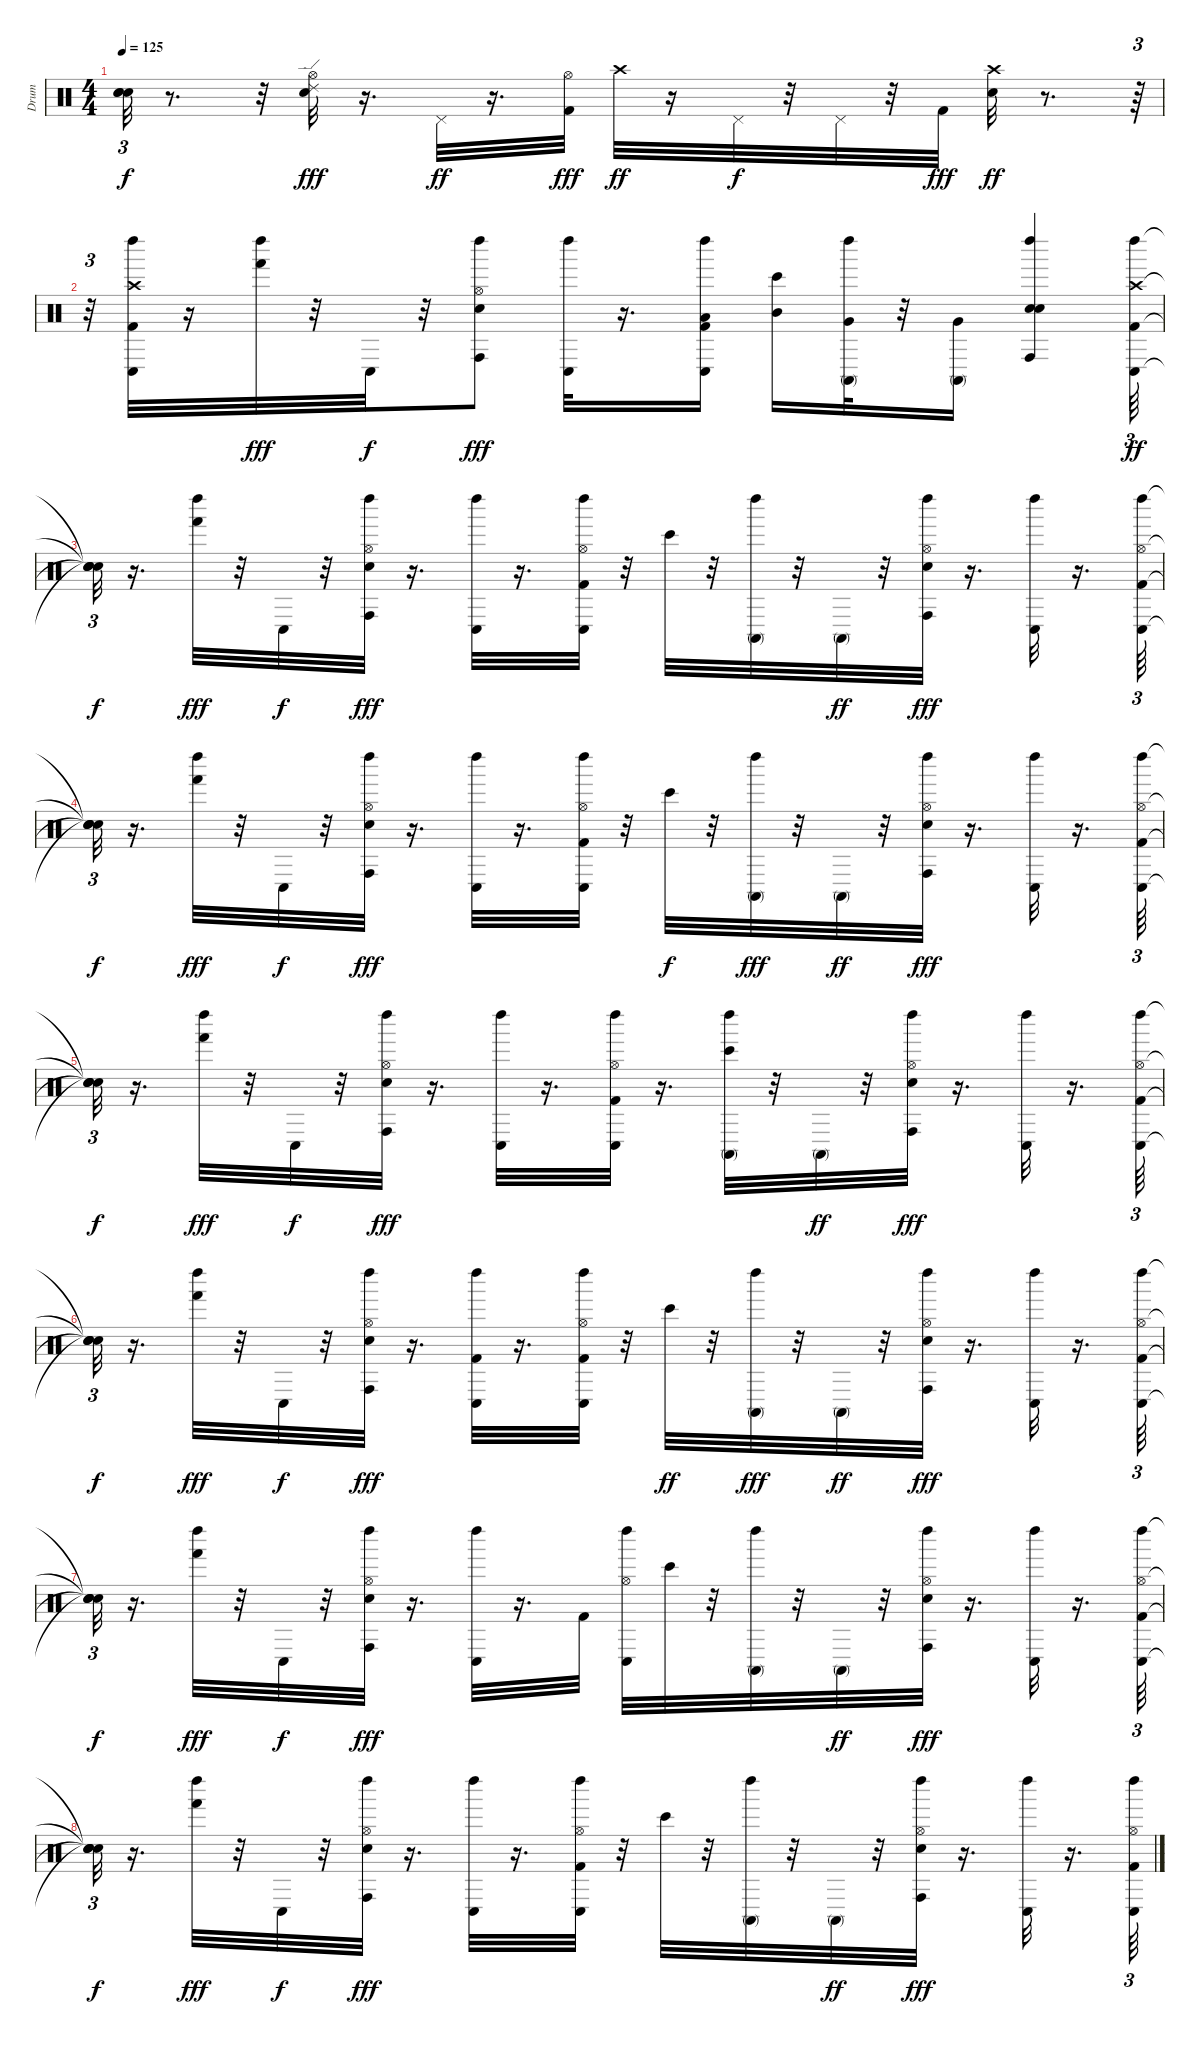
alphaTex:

\track ("Drum" "Drum") {instrument percussion}
\staff {score}
\articulation defaults
\ts (4 4)
\tempo 125
\clef neutral
\ks c
("Snare (hit)"{t} "Snare (hit)"{t} "Snare (hit)"{t}).32{tu (3 2) dy f} r.8{d} r.32 ("Hi-Hat (open)" "Electric Snare (hit)" "Ride (edge) 2").32{dy fff} r.16{d} "Pedal Hi-Hat (hit)".32{dy ff} r.16{d} ("Kick (hit) 2" "Hi-Hat (open)").32{dy fff} "Crash high (hit)".32{dy ff} r.16 "Pedal Hi-Hat (hit)".32{dy f} r.32 "Pedal Hi-Hat (hit)".32 r.32 "Kick (hit) 2".32{dy fff} ("Electric Snare (hit)" "Crash high (hit)").32{dy ff} r.8{d} r.64{tu (3 2)} |
r.32{tu (3 2)} ("Kick (hit) 2" "Conga low (hit)" "Left Maraca (hit)" "Crash high (hit)").32 r.16 ("Hand (hit)" "Left Maraca (hit)").32{dy fff} r.32 "Conga low (hit)".32{dy f} r.32 ("Hi-Hat (open)" "Conga high (hit)" "Left Maraca (hit)" "Electric Snare (hit)").8{dy fff} ("Conga low (hit)" "Left Maraca (hit)").32 r.16{d} ("Kick (hit) 2" "Conga low (hit)" "Left Maraca (hit)" "Low Tom (hit)").16 ("Bongo High (hit)" "Mid Tom (hit)").16 ("Conga high (mute)" "Left Maraca (hit)" "Very Low Tom (hit)").32 r.32 ("Conga high (mute)" "Very Low Tom (hit)").16 ("Electric Snare (hit)" "Conga high (hit)" "Left Maraca (hit)" "Electric Snare (hit)").4 ("Kick (hit) 2" "Conga low (hit)" "Left Maraca (hit)" "Crash high (hit)").64{tu (3 2) dy ff} |
("Snare (hit)"{t} "Snare (hit)"{t} "Snare (hit)"{t} "Snare (hit)"{t}).32{tu (3 2) dy f} r.16{d} ("Hand (hit)" "Left Maraca (hit)").32{dy fff} r.32 "Conga low (hit)".32{dy f} r.32 ("Hi-Hat (open)" "Conga high (hit)" "Left Maraca (hit)" "Electric Snare (hit)").32{dy fff} r.16{d} ("Conga low (hit)" "Left Maraca (hit)").32 r.16{d} ("Kick (hit) 2" "Hi-Hat (open)" "Conga low (hit)" "Left Maraca (hit)").32 r.32 "Bongo High (hit)".32 r.32 ("Conga high (mute)" "Left Maraca (hit)").32 r.32 "Conga high (mute)".32{dy ff} r.32 ("Hi-Hat (open)" "Conga high (hit)" "Left Maraca (hit)" "Electric Snare (hit)").32{dy fff} r.16{d} ("Conga low (hit)" "Left Maraca (hit)").32 r.16{d} ("Kick (hit) 2" "Hi-Hat (open)" "Conga low (hit)" "Left Maraca (hit)").64{tu (3 2)} |
("Snare (hit)"{t} "Snare (hit)"{t} "Snare (hit)"{t} "Snare (hit)"{t}).32{tu (3 2) dy f} r.16{d} ("Hand (hit)" "Left Maraca (hit)").32{dy fff} r.32 "Conga low (hit)".32{dy f} r.32 ("Hi-Hat (open)" "Conga high (hit)" "Left Maraca (hit)" "Electric Snare (hit)").32{dy fff} r.16{d} ("Conga low (hit)" "Left Maraca (hit)").32 r.16{d} ("Kick (hit) 2" "Hi-Hat (open)" "Conga low (hit)" "Left Maraca (hit)").32 r.32 "Bongo High (hit)".32{dy f} r.32 ("Conga high (mute)" "Left Maraca (hit)").32{dy fff} r.32 "Conga high (mute)".32{dy ff} r.32 ("Hi-Hat (open)" "Conga high (hit)" "Left Maraca (hit)" "Electric Snare (hit)").32{dy fff} r.16{d} ("Conga low (hit)" "Left Maraca (hit)").32 r.16{d} ("Kick (hit) 2" "Hi-Hat (open)" "Conga low (hit)" "Left Maraca (hit)").64{tu (3 2)} |
("Snare (hit)"{t} "Snare (hit)"{t} "Snare (hit)"{t} "Snare (hit)"{t}).32{tu (3 2) dy f} r.16{d} ("Hand (hit)" "Left Maraca (hit)").32{dy fff} r.32 "Conga low (hit)".32{dy f} r.32 ("Hi-Hat (open)" "Conga high (hit)" "Left Maraca (hit)" "Electric Snare (hit)").32{dy fff} r.16{d} ("Conga low (hit)" "Left Maraca (hit)").32 r.16{d} ("Kick (hit) 2" "Hi-Hat (open)" "Conga low (hit)" "Left Maraca (hit)").32 r.16{d} ("Bongo High (hit)" "Conga high (mute)" "Left Maraca (hit)").32 r.32 "Conga high (mute)".32{dy ff} r.32 ("Hi-Hat (open)" "Conga high (hit)" "Left Maraca (hit)" "Electric Snare (hit)").32{dy fff} r.16{d} ("Conga low (hit)" "Left Maraca (hit)").32 r.16{d} ("Kick (hit) 2" "Hi-Hat (open)" "Conga low (hit)" "Left Maraca (hit)").64{tu (3 2)} |
("Snare (hit)"{t} "Snare (hit)"{t} "Snare (hit)"{t} "Snare (hit)"{t}).32{tu (3 2) dy f} r.16{d} ("Hand (hit)" "Left Maraca (hit)").32{dy fff} r.32 "Conga low (hit)".32{dy f} r.32 ("Hi-Hat (open)" "Conga high (hit)" "Left Maraca (hit)" "Electric Snare (hit)").32{dy fff} r.16{d} ("Kick (hit) 2" "Conga low (hit)" "Left Maraca (hit)").32 r.16{d} ("Kick (hit) 2" "Hi-Hat (open)" "Conga low (hit)" "Left Maraca (hit)").32 r.32 "Bongo High (hit)".32{dy ff} r.32 ("Conga high (mute)" "Left Maraca (hit)").32{dy fff} r.32 "Conga high (mute)".32{dy ff} r.32 ("Hi-Hat (open)" "Conga high (hit)" "Left Maraca (hit)" "Electric Snare (hit)").32{dy fff} r.16{d} ("Conga low (hit)" "Left Maraca (hit)").32 r.16{d} ("Kick (hit) 2" "Hi-Hat (open)" "Conga low (hit)" "Left Maraca (hit)").64{tu (3 2)} |
("Snare (hit)"{t} "Snare (hit)"{t} "Snare (hit)"{t} "Snare (hit)"{t}).32{tu (3 2) dy f} r.16{d} ("Hand (hit)" "Left Maraca (hit)").32{dy fff} r.32 "Conga low (hit)".32{dy f} r.32 ("Hi-Hat (open)" "Conga high (hit)" "Left Maraca (hit)" "Electric Snare (hit)").32{dy fff} r.16{d} ("Conga low (hit)" "Left Maraca (hit)").32 r.16{d} "Kick (hit) 2".32 ("Hi-Hat (open)" "Conga low (hit)" "Left Maraca (hit)").32 "Bongo High (hit)".32 r.32 ("Conga high (mute)" "Left Maraca (hit)").32 r.32 "Conga high (mute)".32{dy ff} r.32 ("Hi-Hat (open)" "Conga high (hit)" "Left Maraca (hit)" "Electric Snare (hit)").32{dy fff} r.16{d} ("Conga low (hit)" "Left Maraca (hit)").32 r.16{d} ("Kick (hit) 2" "Hi-Hat (open)" "Conga low (hit)" "Left Maraca (hit)").64{tu (3 2)} |
("Snare (hit)"{t} "Snare (hit)"{t} "Snare (hit)"{t} "Snare (hit)"{t}).32{tu (3 2) dy f} r.16{d} ("Hand (hit)" "Left Maraca (hit)").32{dy fff} r.32 "Conga low (hit)".32{dy f} r.32 ("Hi-Hat (open)" "Conga high (hit)" "Left Maraca (hit)" "Electric Snare (hit)").32{dy fff} r.16{d} ("Conga low (hit)" "Left Maraca (hit)").32 r.16{d} ("Kick (hit) 2" "Hi-Hat (open)" "Conga low (hit)" "Left Maraca (hit)").32 r.32 "Bongo High (hit)".32 r.32 ("Conga high (mute)" "Left Maraca (hit)").32 r.32 "Conga high (mute)".32{dy ff} r.32 ("Hi-Hat (open)" "Conga high (hit)" "Left Maraca (hit)" "Electric Snare (hit)").32{dy fff} r.16{d} ("Conga low (hit)" "Left Maraca (hit)").32 r.16{d} ("Kick (hit) 2" "Hi-Hat (open)" "Conga low (hit)" "Left Maraca (hit)").64{tu (3 2)}
